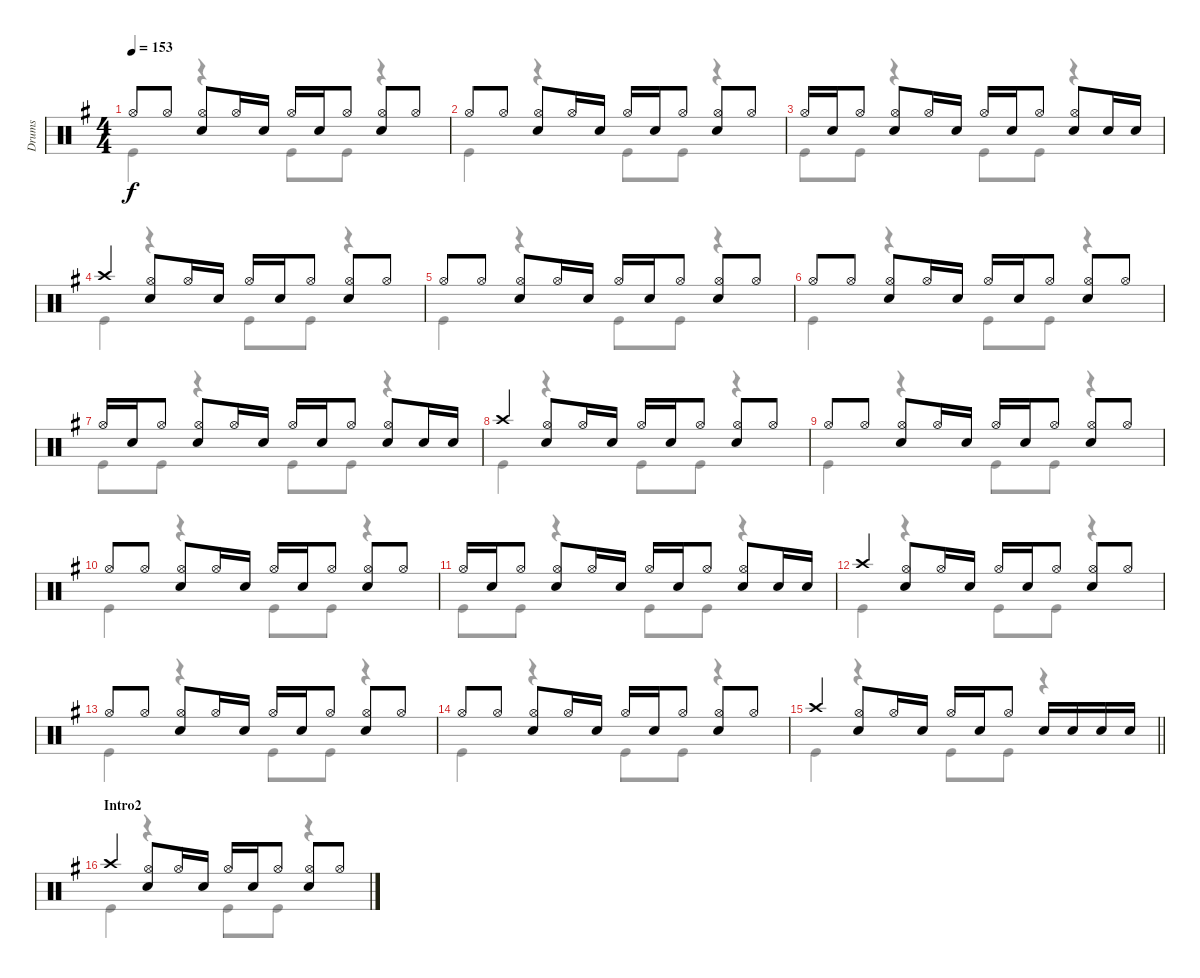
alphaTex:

\track ("Drums" "Drums") {instrument percussion}
\staff {score}
\articulation defaults
\voice
\ts (4 4)
\tempo 153
\clef neutral
\ks g "Hi-Hat (open)".8{dy f} "Hi-Hat (open)".8
("Hi-Hat (open)" "Snare (hit) 2").8 "Hi-Hat (open)".16 "Snare (hit) 2".16 "Hi-Hat (open)".16 "Snare (hit) 2".16 "Hi-Hat (open)".8 ("Hi-Hat (open)" "Snare (hit) 2").8 "Hi-Hat (open)".8 |
"Hi-Hat (open)".8 "Hi-Hat (open)".8 ("Hi-Hat (open)" "Snare (hit) 2").8 "Hi-Hat (open)".16 "Snare (hit) 2".16 "Hi-Hat (open)".16 "Snare (hit) 2".16 "Hi-Hat (open)".8 ("Hi-Hat (open)" "Snare (hit) 2").8 "Hi-Hat (open)".8 |
"Hi-Hat (open)".16 "Snare (hit) 2".16 "Hi-Hat (open)".8 ("Hi-Hat (open)" "Snare (hit) 2").8 "Hi-Hat (open)".16 "Snare (hit) 2".16 "Hi-Hat (open)".16 "Snare (hit) 2".16 "Hi-Hat (open)".8 ("Hi-Hat (open)" "Snare (hit) 2").8 "Snare (hit) 2".16 "Snare (hit) 2".16 |
"Crash high (hit)".4 ("Hi-Hat (open)" "Snare (hit) 2").8 "Hi-Hat (open)".16 "Snare (hit) 2".16 "Hi-Hat (open)".16 "Snare (hit) 2".16 "Hi-Hat (open)".8 ("Hi-Hat (open)" "Snare (hit) 2").8 "Hi-Hat (open)".8 |
"Hi-Hat (open)".8 "Hi-Hat (open)".8 ("Hi-Hat (open)" "Snare (hit) 2").8 "Hi-Hat (open)".16 "Snare (hit) 2".16 "Hi-Hat (open)".16 "Snare (hit) 2".16 "Hi-Hat (open)".8 ("Hi-Hat (open)" "Snare (hit) 2").8 "Hi-Hat (open)".8 |
"Hi-Hat (open)".8 "Hi-Hat (open)".8 ("Hi-Hat (open)" "Snare (hit) 2").8 "Hi-Hat (open)".16 "Snare (hit) 2".16 "Hi-Hat (open)".16 "Snare (hit) 2".16 "Hi-Hat (open)".8 ("Hi-Hat (open)" "Snare (hit) 2").8 "Hi-Hat (open)".8 |
"Hi-Hat (open)".16 "Snare (hit) 2".16 "Hi-Hat (open)".8 ("Hi-Hat (open)" "Snare (hit) 2").8 "Hi-Hat (open)".16 "Snare (hit) 2".16 "Hi-Hat (open)".16 "Snare (hit) 2".16 "Hi-Hat (open)".8 ("Hi-Hat (open)" "Snare (hit) 2").8 "Snare (hit) 2".16 "Snare (hit) 2".16 |
"Crash high (hit)".4 ("Hi-Hat (open)" "Snare (hit) 2").8 "Hi-Hat (open)".16 "Snare (hit) 2".16 "Hi-Hat (open)".16 "Snare (hit) 2".16 "Hi-Hat (open)".8 ("Hi-Hat (open)" "Snare (hit) 2").8 "Hi-Hat (open)".8 |
"Hi-Hat (open)".8 "Hi-Hat (open)".8 ("Hi-Hat (open)" "Snare (hit) 2").8 "Hi-Hat (open)".16 "Snare (hit) 2".16 "Hi-Hat (open)".16 "Snare (hit) 2".16 "Hi-Hat (open)".8 ("Hi-Hat (open)" "Snare (hit) 2").8 "Hi-Hat (open)".8 |
"Hi-Hat (open)".8 "Hi-Hat (open)".8 ("Hi-Hat (open)" "Snare (hit) 2").8 "Hi-Hat (open)".16 "Snare (hit) 2".16 "Hi-Hat (open)".16 "Snare (hit) 2".16 "Hi-Hat (open)".8 ("Hi-Hat (open)" "Snare (hit) 2").8 "Hi-Hat (open)".8 |
"Hi-Hat (open)".16 "Snare (hit) 2".16 "Hi-Hat (open)".8 ("Hi-Hat (open)" "Snare (hit) 2").8 "Hi-Hat (open)".16 "Snare (hit) 2".16 "Hi-Hat (open)".16 "Snare (hit) 2".16 "Hi-Hat (open)".8 ("Hi-Hat (open)" "Snare (hit) 2").8 "Snare (hit) 2".16 "Snare (hit) 2".16 |
"Crash high (hit)".4 ("Hi-Hat (open)" "Snare (hit) 2").8 "Hi-Hat (open)".16 "Snare (hit) 2".16 "Hi-Hat (open)".16 "Snare (hit) 2".16 "Hi-Hat (open)".8 ("Hi-Hat (open)" "Snare (hit) 2").8 "Hi-Hat (open)".8 |
"Hi-Hat (open)".8 "Hi-Hat (open)".8 ("Hi-Hat (open)" "Snare (hit) 2").8 "Hi-Hat (open)".16 "Snare (hit) 2".16 "Hi-Hat (open)".16 "Snare (hit) 2".16 "Hi-Hat (open)".8 ("Hi-Hat (open)" "Snare (hit) 2").8 "Hi-Hat (open)".8 |
"Hi-Hat (open)".8 "Hi-Hat (open)".8 ("Hi-Hat (open)" "Snare (hit) 2").8 "Hi-Hat (open)".16 "Snare (hit) 2".16 "Hi-Hat (open)".16 "Snare (hit) 2".16 "Hi-Hat (open)".8 ("Hi-Hat (open)" "Snare (hit) 2").8 "Hi-Hat (open)".8 |
\barLineRight lightlight "Crash high (hit)".4
("Hi-Hat (open)" "Snare (hit) 2").8 "Hi-Hat (open)".16 "Snare (hit) 2".16 "Hi-Hat (open)".16 "Snare (hit) 2".16 "Hi-Hat (open)".8 "Snare (hit) 2".16 "Snare (hit) 2".16 "Snare (hit) 2".16 "Snare (hit) 2".16 |
\section ("" "Intro2")
"Crash high (hit)".4 ("Hi-Hat (open)" "Snare (hit) 2").8 "Hi-Hat (open)".16 "Snare (hit) 2".16 "Hi-Hat (open)".16 "Snare (hit) 2".16 "Hi-Hat (open)".8 ("Hi-Hat (open)" "Snare (hit) 2").8 "Hi-Hat (open)".8
\voice
\clef neutral
\ottava regular
\simile none
\ks g "Kick (hit)".4{dy f}
r.4 "Kick (hit)".8 "Kick (hit)".8 r.4 |
"Kick (hit)".4 r.4 "Kick (hit)".8 "Kick (hit)".8 r.4 |
"Kick (hit)".8 "Kick (hit)".8 r.4 "Kick (hit)".8 "Kick (hit)".8 r.4 |
"Kick (hit)".4 r.4 "Kick (hit)".8 "Kick (hit)".8 r.4 |
"Kick (hit)".4 r.4 "Kick (hit)".8 "Kick (hit)".8 r.4 |
"Kick (hit)".4 r.4 "Kick (hit)".8 "Kick (hit)".8 r.4 |
"Kick (hit)".8 "Kick (hit)".8 r.4 "Kick (hit)".8 "Kick (hit)".8 r.4 |
"Kick (hit)".4 r.4 "Kick (hit)".8 "Kick (hit)".8 r.4 |
"Kick (hit)".4 r.4 "Kick (hit)".8 "Kick (hit)".8 r.4 |
"Kick (hit)".4 r.4 "Kick (hit)".8 "Kick (hit)".8 r.4 |
"Kick (hit)".8 "Kick (hit)".8 r.4 "Kick (hit)".8 "Kick (hit)".8 r.4 |
"Kick (hit)".4 r.4 "Kick (hit)".8 "Kick (hit)".8 r.4 |
"Kick (hit)".4 r.4 "Kick (hit)".8 "Kick (hit)".8 r.4 |
"Kick (hit)".4 r.4 "Kick (hit)".8 "Kick (hit)".8 r.4 |
\barLineRight lightlight "Kick (hit)".4
r.4 "Kick (hit)".8 "Kick (hit)".8 r.4 |
"Kick (hit)".4 r.4 "Kick (hit)".8 "Kick (hit)".8 r.4
